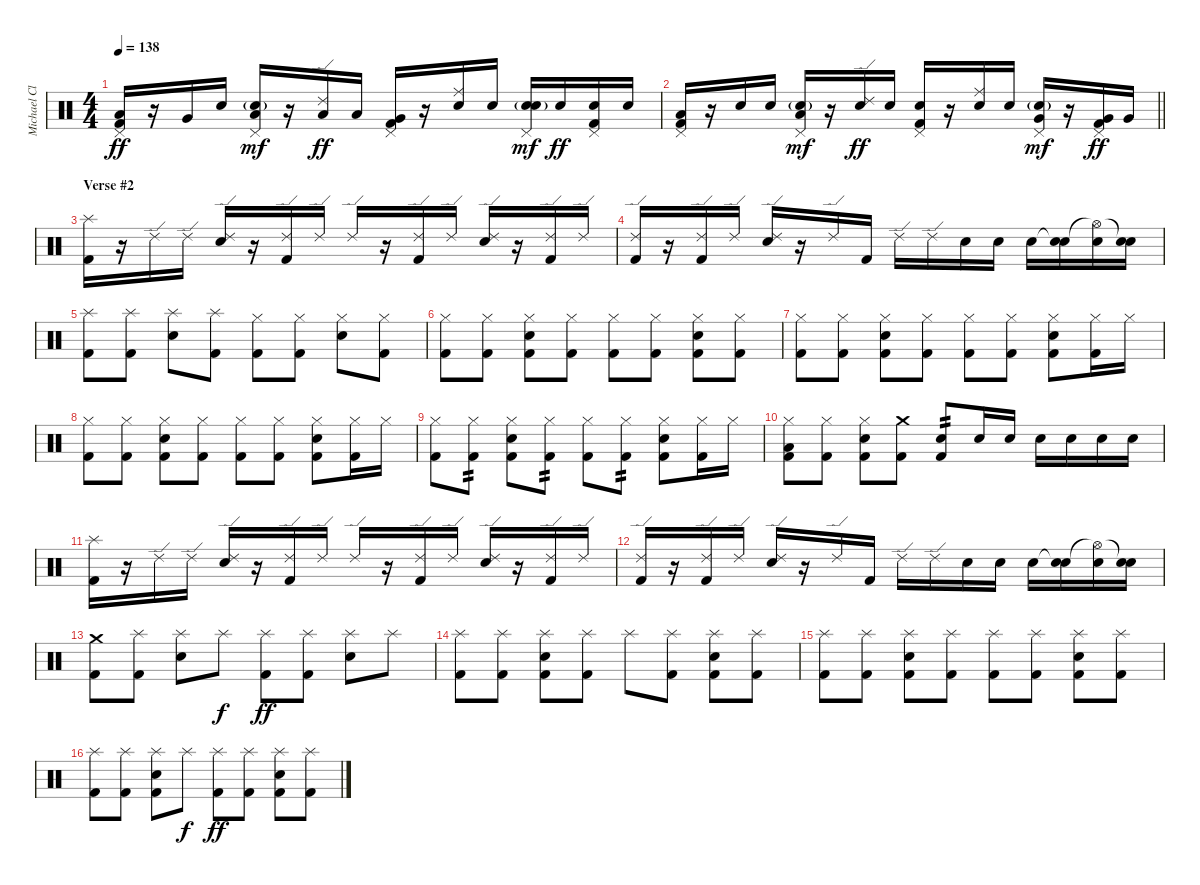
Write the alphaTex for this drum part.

\track ("Michael Clarke" "Michael Cl") {instrument percussion}
\staff {score}
\articulation defaults
\ts (4 4)
\tempo 138
\clef neutral
\ks c
("Pedal Hi-Hat (hit)" "Low Floor Tom (hit)" "Kick (hit) 2").16{dy ff} r.16 "Very Low Tom (hit)".16 "Snare (hit) 2".16 ("Pedal Hi-Hat (hit)" "Low Floor Tom (hit)" "Snare (hit) 2"{g}).16{dy mf} r.16 ("Ride (edge) 2" "Low Floor Tom (hit)").16{dy ff} "Low Floor Tom (hit)".16 ("Pedal Hi-Hat (hit)" "Very Low Tom (hit)" "Kick (hit) 2").16 r.16 ("Ride (middle)" "Snare (hit) 2").16 "Snare (hit) 2".16 ("Pedal Hi-Hat (hit)" "Snare (hit) 2" "Snare (hit) 2"{g}).16{dy mf} "Snare (hit) 2".16{dy ff} ("Pedal Hi-Hat (hit)" "Snare (hit) 2" "Kick (hit) 2").16 "Snare (hit) 2".16 |
\barLineRight lightlight
("Pedal Hi-Hat (hit)" "Low Floor Tom (hit)" "Kick (hit) 2").16 r.16 "Snare (hit) 2".16 "Snare (hit) 2".16 ("Pedal Hi-Hat (hit)" "Low Floor Tom (hit)" "Snare (hit) 2"{g}).16{dy mf} r.16 ("Ride (edge) 2" "Snare (hit) 2").16{dy ff} "Snare (hit) 2".16 ("Pedal Hi-Hat (hit)" "Snare (hit) 2" "Kick (hit) 2").16 r.16 ("Ride (middle)" "Snare (hit) 2").16 "Snare (hit) 2".16 ("Pedal Hi-Hat (hit)" "Very Low Tom (hit)" "Snare (hit) 2"{g}).16{dy mf} r.16 ("Pedal Hi-Hat (hit)" "Very Low Tom (hit)" "Kick (hit) 2").16{dy ff} "Very Low Tom (hit)".16 |
\section ("" "Verse #2")
("Splash (hit)" "Kick (hit) 2").16 r.16 "Ride (edge) 2".16 "Ride (edge) 2".16 ("Ride (edge) 2" "Snare (hit) 2").16 r.16 ("Ride (edge) 2" "Kick (hit) 2").16 "Ride (edge) 2".16 "Ride (edge) 2".16 r.16 ("Ride (edge) 2" "Kick (hit) 2").16 "Ride (edge) 2".16 ("Ride (edge) 2" "Snare (hit) 2").16 r.16 ("Ride (edge) 2" "Kick (hit) 2").16 "Ride (edge) 2".16 |
("Ride (edge) 2" "Kick (hit) 2").16 r.16 ("Ride (edge) 2" "Kick (hit) 2").16 "Ride (edge) 2".16 ("Ride (edge) 2" "Snare (hit) 2").16 r.16 "Ride (edge) 2".16 "Kick (hit) 2".16 "Ride (edge) 2".16 "Ride (edge) 2".16 "Snare (hit) 2".16 "Snare (hit) 2".16 "Snare (hit) 2".16 ("Snare (hit)"{t} "Snare (hit) 2").16 ("Hi-Hat (open)"{t} "Snare (hit) 2").16 ("Snare (hit)"{t} "Snare (hit) 2").16 |
("Splash (hit)" "Kick (hit) 2").8 ("Splash (hit)" "Kick (hit) 2").8 ("Splash (hit)" "Snare (hit) 2").8 ("Splash (hit)" "Kick (hit) 2").8 ("Hi-Hat (closed)" "Kick (hit) 2").8 ("Hi-Hat (closed)" "Kick (hit) 2").8 ("Hi-Hat (closed)" "Snare (hit) 2").8 ("Hi-Hat (closed)" "Kick (hit) 2").8 |
("Hi-Hat (closed)" "Kick (hit) 2").8 ("Hi-Hat (closed)" "Kick (hit) 2").8 ("Hi-Hat (closed)" "Snare (hit) 2" "Kick (hit) 2").8 ("Hi-Hat (closed)" "Kick (hit) 2").8 ("Hi-Hat (closed)" "Kick (hit) 2").8 ("Hi-Hat (closed)" "Kick (hit) 2").8 ("Hi-Hat (closed)" "Snare (hit) 2" "Kick (hit) 2").8 ("Hi-Hat (closed)" "Kick (hit) 2").8 |
("Hi-Hat (closed)" "Kick (hit) 2").8 ("Hi-Hat (closed)" "Kick (hit) 2").8 ("Hi-Hat (closed)" "Snare (hit) 2" "Kick (hit) 2").8 ("Hi-Hat (closed)" "Kick (hit) 2").8 ("Hi-Hat (closed)" "Kick (hit) 2").8 ("Hi-Hat (closed)" "Kick (hit) 2").8 ("Hi-Hat (closed)" "Snare (hit) 2" "Kick (hit) 2").8 ("Hi-Hat (closed)" "Kick (hit) 2").16 "Hi-Hat (closed)".16 |
("Hi-Hat (closed)" "Kick (hit) 2").8 ("Hi-Hat (closed)" "Kick (hit) 2").8 ("Hi-Hat (closed)" "Snare (hit) 2" "Kick (hit) 2").8 ("Hi-Hat (closed)" "Kick (hit) 2").8 ("Hi-Hat (closed)" "Kick (hit) 2").8 ("Hi-Hat (closed)" "Kick (hit) 2").8 ("Hi-Hat (closed)" "Snare (hit) 2" "Kick (hit) 2").8 ("Hi-Hat (closed)" "Kick (hit) 2").16 "Hi-Hat (closed)".16 |
("Hi-Hat (closed)" "Kick (hit) 2").8 ("Hi-Hat (closed)" "Kick (hit) 2").8{tp 2} ("Hi-Hat (closed)" "Snare (hit) 2" "Kick (hit) 2").8 ("Hi-Hat (closed)" "Kick (hit) 2").8{tp 2} ("Hi-Hat (closed)" "Kick (hit) 2").8 ("Hi-Hat (closed)" "Kick (hit) 2").8{tp 2} ("Hi-Hat (closed)" "Snare (hit) 2" "Kick (hit) 2").8 ("Hi-Hat (closed)" "Kick (hit) 2").16 "Hi-Hat (closed)".16 |
("Hi-Hat (closed)" "Low Tom (hit)" "Kick (hit) 2").8 ("Hi-Hat (closed)" "Kick (hit) 2").8 ("Hi-Hat (closed)" "Snare (hit) 2" "Kick (hit) 2").8 ("Crash medium (hit)" "Kick (hit) 2").8 ("Snare (hit) 2" "Kick (hit) 2").8{tp 2} "Snare (hit) 2".16 "Snare (hit) 2".16 "Snare (hit) 2".16 "Snare (hit) 2".16 "Snare (hit) 2".16 "Snare (hit) 2".16 |
("Splash (hit)" "Kick (hit) 2").16 r.16 "Ride (edge) 2".16 "Ride (edge) 2".16 ("Ride (edge) 2" "Snare (hit) 2").16 r.16 ("Ride (edge) 2" "Kick (hit) 2").16 "Ride (edge) 2".16 "Ride (edge) 2".16 r.16 ("Ride (edge) 2" "Kick (hit) 2").16 "Ride (edge) 2".16 ("Ride (edge) 2" "Snare (hit) 2").16 r.16 ("Ride (edge) 2" "Kick (hit) 2").16 "Ride (edge) 2".16 |
("Ride (edge) 2" "Kick (hit) 2").16 r.16 ("Ride (edge) 2" "Kick (hit) 2").16 "Ride (edge) 2".16 ("Ride (edge) 2" "Snare (hit) 2").16 r.16 "Ride (edge) 2".16 "Kick (hit) 2".16 "Ride (edge) 2".16 "Ride (edge) 2".16 "Snare (hit) 2".16 "Snare (hit) 2".16 "Snare (hit) 2".16 ("Snare (hit)"{t} "Snare (hit) 2").16 ("Hi-Hat (open)"{t} "Snare (hit) 2").16 ("Snare (hit)"{t} "Snare (hit) 2").16 |
("Crash medium (hit)" "Kick (hit) 2").8 ("Splash (hit)" "Kick (hit) 2").8 ("Splash (hit)" "Snare (hit) 2").8 "Splash (hit)".8{dy f} ("Splash (hit)" "Kick (hit) 2").8{dy ff} ("Splash (hit)" "Kick (hit) 2").8 ("Splash (hit)" "Snare (hit) 2").8 "Splash (hit)".8 |
("Splash (hit)" "Kick (hit) 2").8 ("Splash (hit)" "Kick (hit) 2").8 ("Splash (hit)" "Snare (hit) 2" "Kick (hit) 2").8 ("Splash (hit)" "Kick (hit) 2").8 "Splash (hit)".8 ("Splash (hit)" "Kick (hit) 2").8 ("Splash (hit)" "Snare (hit) 2" "Kick (hit) 2").8 ("Splash (hit)" "Kick (hit) 2").8 |
("Splash (hit)" "Kick (hit) 2").8 ("Splash (hit)" "Kick (hit) 2").8 ("Splash (hit)" "Snare (hit) 2" "Kick (hit) 2").8 ("Splash (hit)" "Kick (hit) 2").8 ("Splash (hit)" "Kick (hit) 2").8 ("Splash (hit)" "Kick (hit) 2").8 ("Splash (hit)" "Snare (hit) 2" "Kick (hit) 2").8 ("Splash (hit)" "Kick (hit) 2").8 |
("Splash (hit)" "Kick (hit) 2").8 ("Splash (hit)" "Kick (hit) 2").8 ("Splash (hit)" "Snare (hit) 2" "Kick (hit) 2").8 "Splash (hit)".8{dy f} ("Splash (hit)" "Kick (hit) 2").8{dy ff} ("Splash (hit)" "Kick (hit) 2").8 ("Splash (hit)" "Snare (hit) 2" "Kick (hit) 2").8 ("Splash (hit)" "Kick (hit) 2").8
